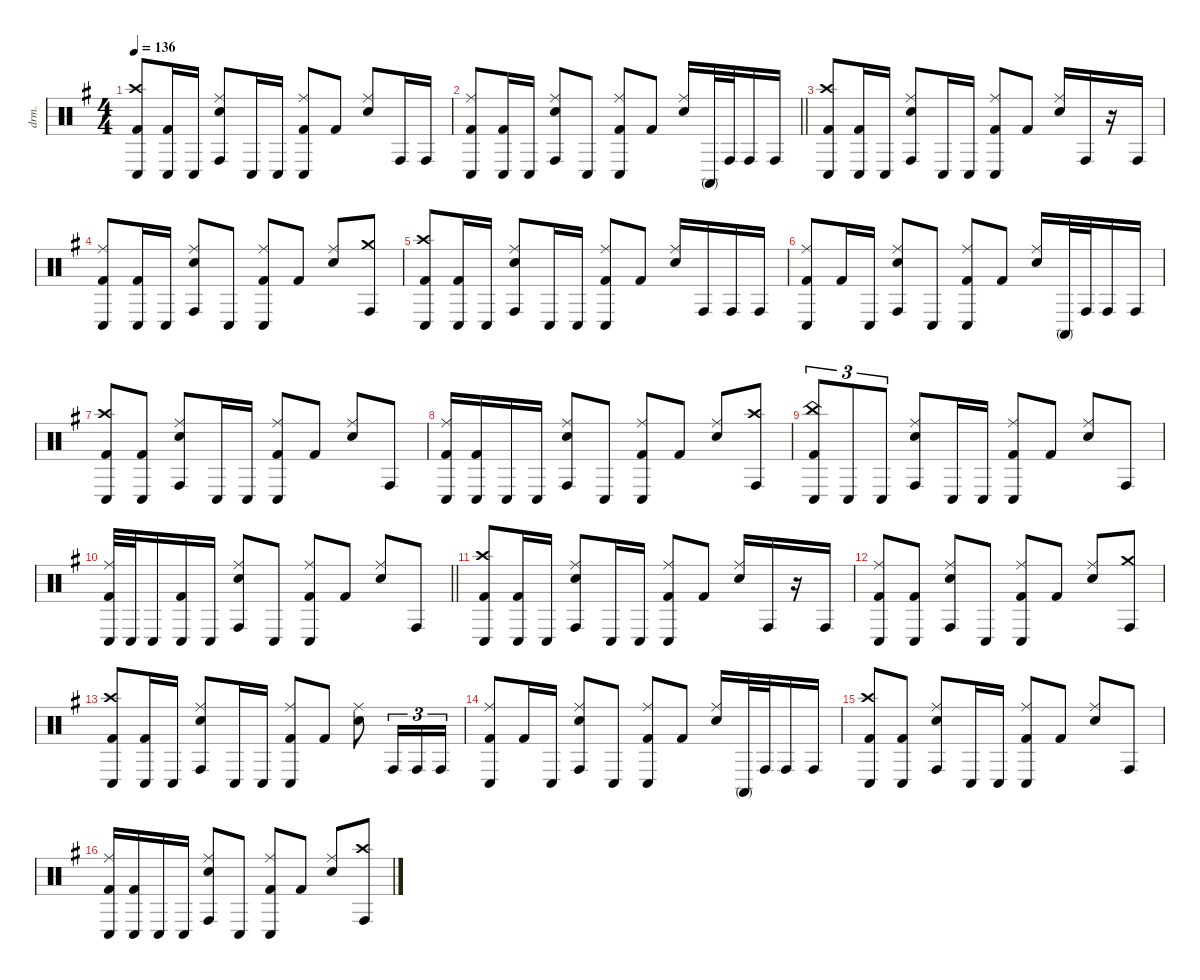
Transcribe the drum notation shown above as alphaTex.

\defaultSystemsLayout 4
\hideDynamics
\bracketExtendMode nobrackets
\otherSystemsTrackNameOrientation horizontal
\track ("Batterie" "drm.") {instrument percussion}
\staff {score}
\articulation defaults
\ts (4 4)
\tempo 136
\clef neutral
\ks g
("Crash high (hit)"{acc forcenatural} "Conga low (hit)"{acc forcenatural} "Kick (hit) 2"{acc forcenatural}).8{dy f beam Up} ("Conga low (hit)"{acc forcenatural} "Kick (hit) 2"{acc forcenatural}).16{beam Up} "Conga low (hit)"{acc forcenatural}.16{beam Up} ("Ride (middle)"{acc forcenatural} "Conga high (hit)"{acc forcenatural} "Snare (hit) 2"{acc forcenatural}).8{beam Up} "Conga low (hit)"{acc forcenatural}.16{beam Up} "Conga low (hit)"{acc forcenatural}.16{beam Up} ("Ride (middle)"{acc forcenatural} "Conga low (hit)"{acc forcenatural} "Kick (hit) 2"{acc forcenatural}).8{beam Up} "Kick (hit) 2"{acc forcenatural}.8{beam Up} ("Ride (middle)"{acc forcenatural} "Snare (hit) 2"{acc forcenatural}).8{beam Up} "Conga high (hit)"{acc forcenatural}.16{beam Up} "Conga high (hit)"{acc forcenatural}.16{beam Up} |
\barLineRight lightlight
("Ride (middle)"{acc forcenatural} "Conga low (hit)"{acc forcenatural} "Kick (hit) 2"{acc forcenatural}).8{beam Up} ("Conga low (hit)"{acc forcenatural} "Kick (hit) 2"{acc forcenatural}).16{beam Up} "Conga low (hit)"{acc forcenatural}.16{beam Up} ("Ride (middle)"{acc forcenatural} "Conga high (hit)"{acc forcenatural} "Snare (hit) 2"{acc forcenatural}).8{beam Up} "Conga low (hit)"{acc forcenatural}.8{beam Up} ("Ride (middle)"{acc forcenatural} "Conga low (hit)"{acc forcenatural} "Kick (hit) 2"{acc forcenatural}).8{beam Up} "Kick (hit) 2"{acc forcenatural}.8{beam Up} ("Ride (middle)"{acc forcenatural} "Snare (hit) 2"{acc forcenatural}).16{beam Up} "Conga high (mute)"{acc forcenatural}.32{beam Up} "Conga high (hit)"{acc forcenatural}.32{beam Up} "Conga high (hit)"{acc forcenatural}.16{beam Up} "Conga high (hit)"{acc forcenatural}.16{beam Up} |
("Crash high (hit)"{acc forcenatural} "Conga low (hit)"{acc forcenatural} "Kick (hit) 2"{acc forcenatural}).8{beam Up} ("Conga low (hit)"{acc forcenatural} "Kick (hit) 2"{acc forcenatural}).16{beam Up} "Conga low (hit)"{acc forcenatural}.16{beam Up} ("Ride (middle)"{acc forcenatural} "Conga high (hit)"{acc forcenatural} "Snare (hit) 2"{acc forcenatural}).8{beam Up} "Conga low (hit)"{acc forcenatural}.16{beam Up} "Conga low (hit)"{acc forcenatural}.16{beam Up} ("Ride (middle)"{acc forcenatural} "Conga low (hit)"{acc forcenatural} "Kick (hit) 2"{acc forcenatural}).8{beam Up} "Kick (hit) 2"{acc forcenatural}.8{beam Up} ("Ride (middle)"{acc forcenatural} "Snare (hit) 2"{acc forcenatural}).16{beam Up} "Conga high (hit)"{acc forcenatural}.16{beam Up} r.16{beam Up} "Conga high (hit)"{acc forcenatural}.16{beam Up} |
("Ride (middle)"{acc forcenatural} "Conga low (hit)"{acc forcenatural} "Kick (hit) 2"{acc forcenatural}).8{beam Up} ("Conga low (hit)"{acc forcenatural} "Kick (hit) 2"{acc forcenatural}).16{beam Up} "Conga low (hit)"{acc forcenatural}.16{beam Up} ("Ride (middle)"{acc forcenatural} "Conga high (hit)"{acc forcenatural} "Snare (hit) 2"{acc forcenatural}).8{beam Up} "Conga low (hit)"{acc forcenatural}.8{beam Up} ("Ride (middle)"{acc forcenatural} "Conga low (hit)"{acc forcenatural} "Kick (hit) 2"{acc forcenatural}).8{beam Up} "Kick (hit) 2"{acc forcenatural}.8{beam Up} ("Ride (middle)"{acc forcenatural} "Snare (hit) 2"{acc forcenatural}).8{beam Up} ("Crash medium (hit)"{acc forcenatural} "Conga high (hit)"{acc forcenatural}).8{beam Up} |
("Crash high (hit)"{acc forcenatural} "Conga low (hit)"{acc forcenatural} "Kick (hit) 2"{acc forcenatural}).8{beam Up} ("Conga low (hit)"{acc forcenatural} "Kick (hit) 2"{acc forcenatural}).16{beam Up} "Conga low (hit)"{acc forcenatural}.16{beam Up} ("Ride (middle)"{acc forcenatural} "Conga high (hit)"{acc forcenatural} "Snare (hit) 2"{acc forcenatural}).8{beam Up} "Conga low (hit)"{acc forcenatural}.16{beam Up} "Conga low (hit)"{acc forcenatural}.16{beam Up} ("Ride (middle)"{acc forcenatural} "Conga low (hit)"{acc forcenatural} "Kick (hit) 2"{acc forcenatural}).8{beam Up} "Kick (hit) 2"{acc forcenatural}.8{beam Up} ("Ride (middle)"{acc forcenatural} "Snare (hit) 2"{acc forcenatural}).16{beam Up} "Conga high (hit)"{acc forcenatural}.16{beam Up} "Conga high (hit)"{acc forcenatural}.16{beam Up} "Conga high (hit)"{acc forcenatural}.16{beam Up} |
("Ride (middle)"{acc forcenatural} "Conga low (hit)"{acc forcenatural} "Kick (hit) 2"{acc forcenatural}).8{beam Up} "Kick (hit) 2"{acc forcenatural}.16{beam Up} "Conga low (hit)"{acc forcenatural}.16{beam Up} ("Ride (middle)"{acc forcenatural} "Conga high (hit)"{acc forcenatural} "Snare (hit) 2"{acc forcenatural}).8{beam Up} "Conga low (hit)"{acc forcenatural}.8{beam Up} ("Ride (middle)"{acc forcenatural} "Conga low (hit)"{acc forcenatural} "Kick (hit) 2"{acc forcenatural}).8{beam Up} "Kick (hit) 2"{acc forcenatural}.8{beam Up} ("Ride (middle)"{acc forcenatural} "Snare (hit) 2"{acc forcenatural}).16{beam Up} "Conga high (mute)"{acc forcenatural}.32{beam Up} "Conga high (hit)"{acc forcenatural}.32{beam Up} "Conga high (hit)"{acc forcenatural}.16{beam Up} "Conga high (hit)"{acc forcenatural}.16{beam Up} |
("Crash high (hit)"{acc forcenatural} "Conga low (hit)"{acc forcenatural} "Kick (hit) 2"{acc forcenatural}).8{beam Up} ("Conga low (hit)"{acc forcenatural} "Kick (hit) 2"{acc forcenatural}).8{beam Up} ("Ride (middle)"{acc forcenatural} "Conga high (hit)"{acc forcenatural} "Snare (hit) 2"{acc forcenatural}).8{beam Up} "Conga low (hit)"{acc forcenatural}.16{beam Up} "Conga low (hit)"{acc forcenatural}.16{beam Up} ("Ride (middle)"{acc forcenatural} "Conga low (hit)"{acc forcenatural} "Kick (hit) 2"{acc forcenatural}).8{beam Up} "Kick (hit) 2"{acc forcenatural}.8{beam Up} ("Ride (middle)"{acc forcenatural} "Snare (hit) 2"{acc forcenatural}).8{beam Up} "Conga high (hit)"{acc forcenatural}.8{beam Up} |
("Ride (middle)"{acc forcenatural} "Conga low (hit)"{acc forcenatural} "Kick (hit) 2"{acc forcenatural}).16{beam Up} ("Conga low (hit)"{acc forcenatural} "Kick (hit) 2"{acc forcenatural}).16{beam Up} "Conga low (hit)"{acc forcenatural}.16{beam Up} "Conga low (hit)"{acc forcenatural}.16{beam Up} ("Ride (middle)"{acc forcenatural} "Conga high (hit)"{acc forcenatural} "Snare (hit) 2"{acc forcenatural}).8{beam Up} "Conga low (hit)"{acc forcenatural}.8{beam Up} ("Ride (middle)"{acc forcenatural} "Conga low (hit)"{acc forcenatural} "Kick (hit) 2"{acc forcenatural}).8{beam Up} "Kick (hit) 2"{acc forcenatural}.8{beam Up} ("Ride (middle)"{acc forcenatural} "Snare (hit) 2"{acc forcenatural}).8{beam Up} ("Crash high (hit)"{acc forcenatural} "Conga high (hit)"{acc forcenatural}).8{beam Up} |
("China (hit)"{acc forcenatural} "Conga low (hit)"{acc forcenatural} "Kick (hit) 2"{acc forcenatural}).8{tu (3 2) beam Up} "Conga low (hit)"{acc forcenatural}.8{tu (3 2) beam Up} "Conga low (hit)"{acc forcenatural}.8{tu (3 2) beam Up} ("Ride (middle)"{acc forcenatural} "Conga high (hit)"{acc forcenatural} "Snare (hit) 2"{acc forcenatural}).8{beam Up} "Conga low (hit)"{acc forcenatural}.16{beam Up} "Conga low (hit)"{acc forcenatural}.16{beam Up} ("Ride (middle)"{acc forcenatural} "Conga low (hit)"{acc forcenatural} "Kick (hit) 2"{acc forcenatural}).8{beam Up} "Kick (hit) 2"{acc forcenatural}.8{beam Up} ("Ride (middle)"{acc forcenatural} "Snare (hit) 2"{acc forcenatural}).8{beam Up} "Conga high (hit)"{acc forcenatural}.8{beam Up} |
\barLineRight lightlight
("Ride (middle)"{acc forcenatural} "Conga low (hit)"{acc forcenatural} "Kick (hit) 2"{acc forcenatural}).32{beam Up} "Conga low (hit)"{acc forcenatural}.32{beam Up} "Conga low (hit)"{acc forcenatural}.16{beam Up} ("Conga low (hit)"{acc forcenatural} "Kick (hit) 2"{acc forcenatural}).16{beam Up} "Conga low (hit)"{acc forcenatural}.16{beam Up} ("Ride (middle)"{acc forcenatural} "Conga high (hit)"{acc forcenatural} "Snare (hit) 2"{acc forcenatural}).8{beam Up} "Conga low (hit)"{acc forcenatural}.8{beam Up} ("Ride (middle)"{acc forcenatural} "Conga low (hit)"{acc forcenatural} "Kick (hit) 2"{acc forcenatural}).8{beam Up} "Kick (hit) 2"{acc forcenatural}.8{beam Up} ("Ride (middle)"{acc forcenatural} "Snare (hit) 2"{acc forcenatural}).8{beam Up} "Conga high (hit)"{acc forcenatural}.8{beam Up} |
("Crash high (hit)"{acc forcenatural} "Conga low (hit)"{acc forcenatural} "Kick (hit) 2"{acc forcenatural}).8{beam Up} ("Conga low (hit)"{acc forcenatural} "Kick (hit) 2"{acc forcenatural}).16{beam Up} "Conga low (hit)"{acc forcenatural}.16{beam Up} ("Ride (middle)"{acc forcenatural} "Conga high (hit)"{acc forcenatural} "Snare (hit) 2"{acc forcenatural}).8{beam Up} "Conga low (hit)"{acc forcenatural}.16{beam Up} "Conga low (hit)"{acc forcenatural}.16{beam Up} ("Ride (middle)"{acc forcenatural} "Conga low (hit)"{acc forcenatural} "Kick (hit) 2"{acc forcenatural}).8{beam Up} "Kick (hit) 2"{acc forcenatural}.8{beam Up} ("Ride (middle)"{acc forcenatural} "Snare (hit) 2"{acc forcenatural}).16{beam Up} "Conga high (hit)"{acc forcenatural}.16{beam Up} r.16{beam Up} "Conga high (hit)"{acc forcenatural}.16{beam Up} |
("Ride (middle)"{acc forcenatural} "Conga low (hit)"{acc forcenatural} "Kick (hit) 2"{acc forcenatural}).8{beam Up} ("Conga low (hit)"{acc forcenatural} "Kick (hit) 2"{acc forcenatural}).8{beam Up} ("Ride (middle)"{acc forcenatural} "Conga high (hit)"{acc forcenatural} "Snare (hit) 2"{acc forcenatural}).8{beam Up} "Conga low (hit)"{acc forcenatural}.8{beam Up} ("Ride (middle)"{acc forcenatural} "Conga low (hit)"{acc forcenatural} "Kick (hit) 2"{acc forcenatural}).8{beam Up} "Kick (hit) 2"{acc forcenatural}.8{beam Up} ("Ride (middle)"{acc forcenatural} "Snare (hit) 2"{acc forcenatural}).8{beam Up} ("Crash medium (hit)"{acc forcenatural} "Conga high (hit)"{acc forcenatural}).8{beam Up} |
("Crash high (hit)"{acc forcenatural} "Conga low (hit)"{acc forcenatural} "Kick (hit) 2"{acc forcenatural}).8{beam Up} ("Conga low (hit)"{acc forcenatural} "Kick (hit) 2"{acc forcenatural}).16{beam Up} "Conga low (hit)"{acc forcenatural}.16{beam Up} ("Ride (middle)"{acc forcenatural} "Conga high (hit)"{acc forcenatural} "Snare (hit) 2"{acc forcenatural}).8{beam Up} "Conga low (hit)"{acc forcenatural}.16{beam Up} "Conga low (hit)"{acc forcenatural}.16{beam Up} ("Ride (middle)"{acc forcenatural} "Conga low (hit)"{acc forcenatural} "Kick (hit) 2"{acc forcenatural}).8{beam Up} "Kick (hit) 2"{acc forcenatural}.8{beam Up} ("Ride (middle)"{acc forcenatural} "Snare (hit) 2"{acc forcenatural}).8{beam Down} "Conga high (hit)"{acc forcenatural}.16{tu (3 2) beam Up} "Conga high (hit)"{acc forcenatural}.16{tu (3 2) beam Up} "Conga high (hit)"{acc forcenatural}.16{tu (3 2) beam Up} |
("Ride (middle)"{acc forcenatural} "Conga low (hit)"{acc forcenatural} "Kick (hit) 2"{acc forcenatural}).8{beam Up} "Kick (hit) 2"{acc forcenatural}.16{beam Up} "Conga low (hit)"{acc forcenatural}.16{beam Up} ("Ride (middle)"{acc forcenatural} "Conga high (hit)"{acc forcenatural} "Snare (hit) 2"{acc forcenatural}).8{beam Up} "Conga low (hit)"{acc forcenatural}.8{beam Up} ("Ride (middle)"{acc forcenatural} "Conga low (hit)"{acc forcenatural} "Kick (hit) 2"{acc forcenatural}).8{beam Up} "Kick (hit) 2"{acc forcenatural}.8{beam Up} ("Ride (middle)"{acc forcenatural} "Snare (hit) 2"{acc forcenatural}).16{beam Up} "Conga high (mute)"{acc forcenatural}.32{beam Up} "Conga high (hit)"{acc forcenatural}.32{beam Up} "Conga high (hit)"{acc forcenatural}.16{beam Up} "Conga high (hit)"{acc forcenatural}.16{beam Up} |
("Crash high (hit)"{acc forcenatural} "Conga low (hit)"{acc forcenatural} "Kick (hit) 2"{acc forcenatural}).8{beam Up} ("Conga low (hit)"{acc forcenatural} "Kick (hit) 2"{acc forcenatural}).8{beam Up} ("Ride (middle)"{acc forcenatural} "Conga high (hit)"{acc forcenatural} "Snare (hit) 2"{acc forcenatural}).8{beam Up} "Conga low (hit)"{acc forcenatural}.16{beam Up} "Conga low (hit)"{acc forcenatural}.16{beam Up} ("Ride (middle)"{acc forcenatural} "Conga low (hit)"{acc forcenatural} "Kick (hit) 2"{acc forcenatural}).8{beam Up} "Kick (hit) 2"{acc forcenatural}.8{beam Up} ("Ride (middle)"{acc forcenatural} "Snare (hit) 2"{acc forcenatural}).8{beam Up} "Conga high (hit)"{acc forcenatural}.8{beam Up} |
("Ride (middle)"{acc forcenatural} "Conga low (hit)"{acc forcenatural} "Kick (hit) 2"{acc forcenatural}).16{beam Up} ("Conga low (hit)"{acc forcenatural} "Kick (hit) 2"{acc forcenatural}).16{beam Up} "Conga low (hit)"{acc forcenatural}.16{beam Up} "Conga low (hit)"{acc forcenatural}.16{beam Up} ("Ride (middle)"{acc forcenatural} "Conga high (hit)"{acc forcenatural} "Snare (hit) 2"{acc forcenatural}).8{beam Up} "Conga low (hit)"{acc forcenatural}.8{beam Up} ("Ride (middle)"{acc forcenatural} "Conga low (hit)"{acc forcenatural} "Kick (hit) 2"{acc forcenatural}).8{beam Up} "Kick (hit) 2"{acc forcenatural}.8{beam Up} ("Ride (middle)"{acc forcenatural} "Snare (hit) 2"{acc forcenatural}).8{beam Up} ("Crash high (hit)"{acc forcenatural} "Conga high (hit)"{acc forcenatural}).8{beam Up}
